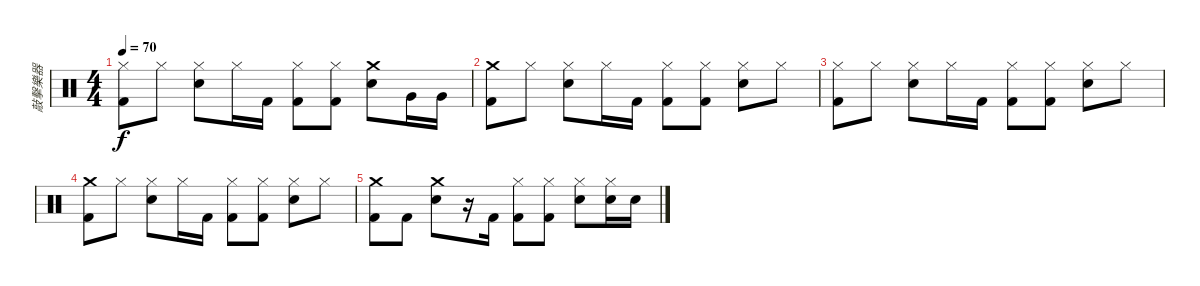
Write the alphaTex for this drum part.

\track ("敲擊樂器" "敲擊樂器") {instrument percussion}
\staff {score}
\articulation defaults
\ts (4 4)
\tempo 70
\clef neutral
\ks c
("Hi-Hat (closed)" "Kick (hit) 2").8{dy f} "Hi-Hat (closed)".8 ("Hi-Hat (closed)" "Snare (hit) 2").8 "Hi-Hat (closed)".16 "Kick (hit) 2".16 ("Hi-Hat (closed)" "Kick (hit) 2").8 ("Hi-Hat (closed)" "Kick (hit) 2").8 ("Crash medium (hit)" "Snare (hit) 2").8 "Very Low Tom (hit)".16 "Very Low Tom (hit)".16 |
("Crash medium (hit)" "Kick (hit) 2").8 "Hi-Hat (closed)".8 ("Hi-Hat (closed)" "Snare (hit) 2").8 "Hi-Hat (closed)".16 "Kick (hit) 2".16 ("Hi-Hat (closed)" "Kick (hit) 2").8 ("Hi-Hat (closed)" "Kick (hit) 2").8 ("Hi-Hat (closed)" "Snare (hit) 2").8 "Hi-Hat (closed)".8 |
("Hi-Hat (closed)" "Kick (hit) 2").8 "Hi-Hat (closed)".8 ("Hi-Hat (closed)" "Snare (hit) 2").8 "Hi-Hat (closed)".16 "Kick (hit) 2".16 ("Hi-Hat (closed)" "Kick (hit) 2").8 ("Hi-Hat (closed)" "Kick (hit) 2").8 ("Hi-Hat (closed)" "Snare (hit) 2").8 "Hi-Hat (closed)".8 |
("Crash medium (hit)" "Kick (hit) 2").8 "Hi-Hat (closed)".8 ("Hi-Hat (closed)" "Snare (hit) 2").8 "Hi-Hat (closed)".16 "Kick (hit) 2".16 ("Hi-Hat (closed)" "Kick (hit) 2").8 ("Hi-Hat (closed)" "Kick (hit) 2").8 ("Hi-Hat (closed)" "Snare (hit) 2").8 "Hi-Hat (closed)".8 |
("Crash medium (hit)" "Kick (hit) 2").8 "Kick (hit) 2".8 ("Crash medium (hit)" "Snare (hit) 2").8 r.16 "Kick (hit) 2".16 ("Hi-Hat (closed)" "Kick (hit) 2").8 ("Hi-Hat (closed)" "Kick (hit) 2").8 ("Hi-Hat (closed)" "Snare (hit) 2").8 ("Hi-Hat (closed)" "Snare (hit) 2").16 "Snare (hit) 2".16
